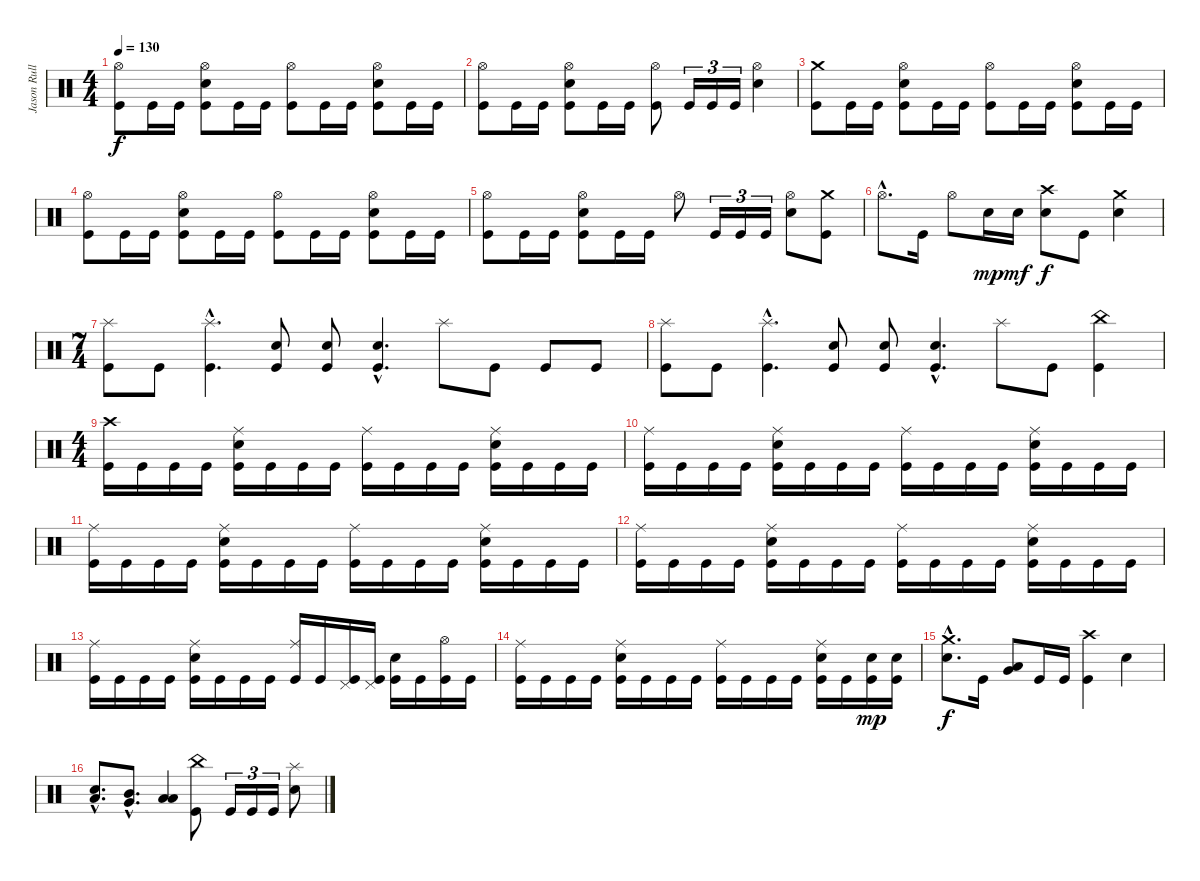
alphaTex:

\track ("Jason Rullo - Batterie" "Jason Rull") {instrument percussion}
\staff {score}
\articulation defaults
\ts (4 4)
\tempo 130
\clef neutral
\ks c
("Hi-Hat (open)" "Kick (hit)").8{dy f} "Kick (hit)".16 "Kick (hit)".16 ("Hi-Hat (open)" "Snare (hit) 2" "Kick (hit)").8 "Kick (hit)".16 "Kick (hit)".16 ("Hi-Hat (open)" "Kick (hit)").8 "Kick (hit)".16 "Kick (hit)".16 ("Hi-Hat (open)" "Snare (hit) 2" "Kick (hit)").8 "Kick (hit)".16 "Kick (hit)".16 |
("Hi-Hat (open)" "Kick (hit)").8 "Kick (hit)".16 "Kick (hit)".16 ("Hi-Hat (open)" "Snare (hit) 2" "Kick (hit)").8 "Kick (hit)".16 "Kick (hit)".16 ("Hi-Hat (open)" "Kick (hit)").8 "Kick (hit)".16{tu (3 2)} "Kick (hit)".16{tu (3 2)} "Kick (hit)".16{tu (3 2)} ("Hi-Hat (open)" "Snare (hit) 2").4 |
("Crash medium (hit)" "Kick (hit)").8 "Kick (hit)".16 "Kick (hit)".16 ("Hi-Hat (open)" "Snare (hit) 2" "Kick (hit)").8 "Kick (hit)".16 "Kick (hit)".16 ("Hi-Hat (open)" "Kick (hit)").8 "Kick (hit)".16 "Kick (hit)".16 ("Hi-Hat (open)" "Snare (hit) 2" "Kick (hit)").8 "Kick (hit)".16 "Kick (hit)".16 |
("Hi-Hat (open)" "Kick (hit)").8 "Kick (hit)".16 "Kick (hit)".16 ("Hi-Hat (open)" "Snare (hit) 2" "Kick (hit)").8 "Kick (hit)".16 "Kick (hit)".16 ("Hi-Hat (open)" "Kick (hit)").8 "Kick (hit)".16 "Kick (hit)".16 ("Hi-Hat (open)" "Snare (hit) 2" "Kick (hit)").8 "Kick (hit)".16 "Kick (hit)".16 |
("Hi-Hat (open)" "Kick (hit)").8 "Kick (hit)".16 "Kick (hit)".16 ("Hi-Hat (open)" "Snare (hit) 2" "Kick (hit)").8 "Kick (hit)".16 "Kick (hit)".16 "Hi-Hat (open)".8 "Kick (hit)".16{tu (3 2)} "Kick (hit)".16{tu (3 2)} "Kick (hit)".16{tu (3 2)} ("Hi-Hat (open)" "Snare (hit) 2").8 ("Crash medium (hit)" "Kick (hit)").8 |
"Hi-Hat (open)"{hac}.8{d} "Kick (hit)".16 "Hi-Hat (open)".8 "Snare (hit) 2".16{dy mp} "Snare (hit) 2".16{dy mf} ("Crash high (hit)" "Snare (hit) 2").8{dy f} "Kick (hit)".8 ("Crash medium (hit)" "Snare (hit) 2").4 |
\ts (7 4)
("Splash (hit)" "Kick (hit)").8 "Kick (hit)".8 ("Splash (hit)"{hac} "Kick (hit)"{hac}).4{d} ("Snare (hit) 2" "Kick (hit)").8 ("Snare (hit) 2" "Kick (hit)").8 ("Snare (hit) 2"{hac} "Kick (hit)"{hac}).4{d} "Splash (hit)".8 "Kick (hit)".8 "Kick (hit)".8 "Kick (hit)".8 |
("Splash (hit)" "Kick (hit)").8 "Kick (hit)".8 ("Splash (hit)"{hac} "Kick (hit)"{hac}).4{d} ("Snare (hit) 2" "Kick (hit)").8 ("Snare (hit) 2" "Kick (hit)").8 ("Snare (hit) 2"{hac} "Kick (hit)"{hac}).4{d} "Splash (hit)".8 "Kick (hit)".8 ("China (hit)" "Kick (hit)").4 |
\ts (4 4)
("Crash high (hit)" "Kick (hit)").16 "Kick (hit)".16 "Kick (hit)".16 "Kick (hit)".16 ("Ride (middle)" "Snare (hit) 2" "Kick (hit)").16 "Kick (hit)".16 "Kick (hit)".16 "Kick (hit)".16 ("Ride (middle)" "Kick (hit)").16 "Kick (hit)".16 "Kick (hit)".16 "Kick (hit)".16 ("Ride (middle)" "Snare (hit) 2" "Kick (hit)").16 "Kick (hit)".16 "Kick (hit)".16 "Kick (hit)".16 |
("Ride (middle)" "Kick (hit)").16 "Kick (hit)".16 "Kick (hit)".16 "Kick (hit)".16 ("Ride (middle)" "Snare (hit) 2" "Kick (hit)").16 "Kick (hit)".16 "Kick (hit)".16 "Kick (hit)".16 ("Ride (middle)" "Kick (hit)").16 "Kick (hit)".16 "Kick (hit)".16 "Kick (hit)".16 ("Ride (middle)" "Snare (hit) 2" "Kick (hit)").16 "Kick (hit)".16 "Kick (hit)".16 "Kick (hit)".16 |
("Ride (middle)" "Kick (hit)").16 "Kick (hit)".16 "Kick (hit)".16 "Kick (hit)".16 ("Ride (middle)" "Snare (hit) 2" "Kick (hit)").16 "Kick (hit)".16 "Kick (hit)".16 "Kick (hit)".16 ("Ride (middle)" "Kick (hit)").16 "Kick (hit)".16 "Kick (hit)".16 "Kick (hit)".16 ("Ride (middle)" "Snare (hit) 2" "Kick (hit)").16 "Kick (hit)".16 "Kick (hit)".16 "Kick (hit)".16 |
("Ride (middle)" "Kick (hit)").16 "Kick (hit)".16 "Kick (hit)".16 "Kick (hit)".16 ("Ride (middle)" "Snare (hit) 2" "Kick (hit)").16 "Kick (hit)".16 "Kick (hit)".16 "Kick (hit)".16 ("Ride (middle)" "Kick (hit)").16 "Kick (hit)".16 "Kick (hit)".16 "Kick (hit)".16 ("Ride (middle)" "Snare (hit) 2" "Kick (hit)").16 "Kick (hit)".16 "Kick (hit)".16 "Kick (hit)".16 |
("Ride (middle)" "Kick (hit)").16 "Kick (hit)".16 "Kick (hit)".16 "Kick (hit)".16 ("Ride (middle)" "Snare (hit) 2" "Kick (hit)").16 "Kick (hit)".16 "Kick (hit)".16 "Kick (hit)".16 ("Ride (middle)" "Kick (hit)").16 "Kick (hit)".16 ("Pedal Hi-Hat (hit)" "Kick (hit)").16 ("Pedal Hi-Hat (hit)" "Kick (hit)").16 ("Snare (hit) 2" "Kick (hit)").16 "Kick (hit)".16 ("Hi-Hat (open)" "Kick (hit)").16 "Kick (hit)".16 |
("Ride (middle)" "Kick (hit)").16 "Kick (hit)".16 "Kick (hit)".16 "Kick (hit)".16 ("Ride (middle)" "Snare (hit) 2" "Kick (hit)").16 "Kick (hit)".16 "Kick (hit)".16 "Kick (hit)".16 ("Ride (middle)" "Kick (hit)").16 "Kick (hit)".16 "Kick (hit)".16 "Kick (hit)".16 ("Ride (middle)" "Snare (hit) 2" "Kick (hit)").16 "Kick (hit)".16 ("Snare (hit) 2" "Kick (hit)").16{dy mp} ("Snare (hit) 2" "Kick (hit)").16 |
("Crash medium (hit)"{hac} "Snare (hit) 2"{hac}).8{d dy f} "Kick (hit)".16 ("Very Low Tom (hit)" "Low Tom (hit)").8 "Kick (hit)".16 "Kick (hit)".16 ("Crash high (hit)" "Kick (hit)").4 "Snare (hit) 2".4 |
("Low Tom (hit)"{hac} "Snare (hit) 2"{hac}).8{d} ("Very Low Tom (hit)"{hac} "Mid Tom (hit)"{hac}).8{d} ("Low Floor Tom (hit)" "Low Tom (hit)").4 ("China (hit)" "Kick (hit)").8 "Kick (hit)".16{tu (3 2)} "Kick (hit)".16{tu (3 2)} "Kick (hit)".16{tu (3 2)} ("Splash (hit)" "Snare (hit) 2").8
